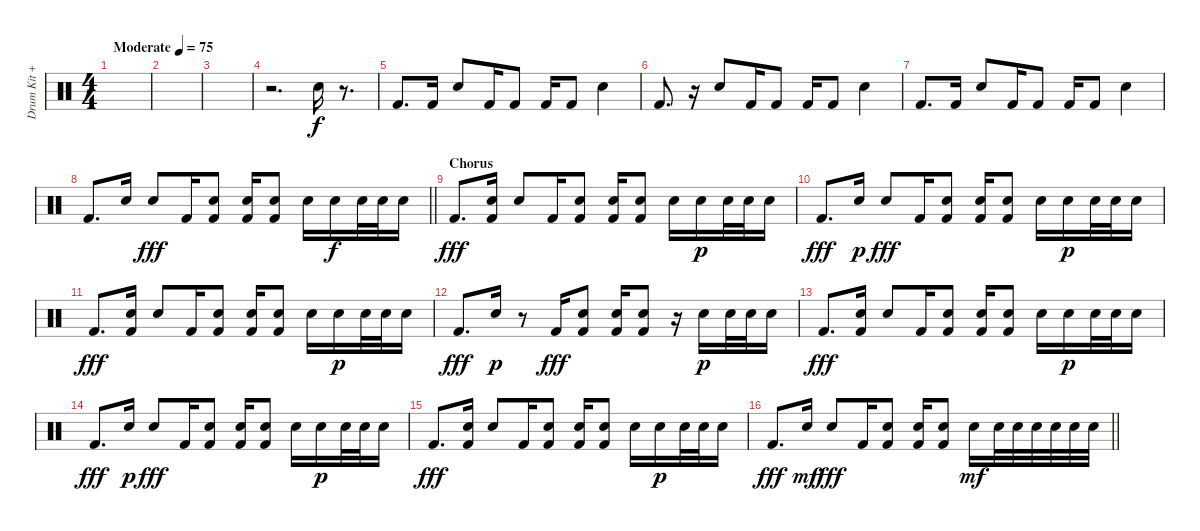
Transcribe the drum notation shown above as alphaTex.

\track ("Drum Kit + Claps" "Drum Kit +") {instrument percussion}
\staff {score}
\articulation defaults
\ts (4 4)
\tempo (75 "Moderate")
\clef neutral
\ks c
|
|
|
r.2{d} "Hand Clap (hit)".16 r.8{d} |
"Kick (hit) 2".8{d} "Kick (hit) 2".16 "Hand Clap (hit)".8 "Kick (hit) 2".16 "Kick (hit) 2".8 "Kick (hit) 2".16 "Kick (hit) 2".8 "Hand Clap (hit)".4 |
"Kick (hit) 2".8{d} r.16 "Hand Clap (hit)".8 "Kick (hit) 2".16 "Kick (hit) 2".8 "Kick (hit) 2".16 "Kick (hit) 2".8 "Hand Clap (hit)".4 |
"Kick (hit) 2".8{d} "Kick (hit) 2".16 "Hand Clap (hit)".8 "Kick (hit) 2".16 "Kick (hit) 2".8 "Kick (hit) 2".16 "Kick (hit) 2".8 "Hand Clap (hit)".4 |
\barLineRight lightlight "Kick (hit) 2".8{d} "Snare (hit) 2".16{dy f} "Hand Clap (hit)".8{dy fff} "Kick (hit) 2".16
("Snare (hit) 2" "Kick (hit) 2").8 ("Snare (hit) 2" "Kick (hit) 2").16 ("Snare (hit) 2" "Kick (hit) 2").8 "Hand Clap (hit)".16 "Snare (hit) 2".16{dy f} "Snare (hit) 2".32 "Snare (hit) 2".32 "Snare (hit) 2".16 |
\section ("" "Chorus")
"Kick (hit) 2".8{d dy fff} ("Snare (hit) 2" "Kick (hit) 2").16 "Hand Clap (hit)".8 "Kick (hit) 2".16 ("Snare (hit) 2" "Kick (hit) 2").8 ("Snare (hit) 2" "Kick (hit) 2").16 ("Snare (hit) 2" "Kick (hit) 2").8 "Hand Clap (hit)".16 "Snare (hit) 2".16{dy p} "Snare (hit) 2".32 "Snare (hit) 2".32 "Snare (hit) 2".16 |
"Kick (hit) 2".8{d dy fff} "Snare (hit) 2".16{dy p} "Hand Clap (hit)".8{dy fff} "Kick (hit) 2".16 ("Snare (hit) 2" "Kick (hit) 2").8 ("Snare (hit) 2" "Kick (hit) 2").16 ("Snare (hit) 2" "Kick (hit) 2").8 "Hand Clap (hit)".16 "Snare (hit) 2".16{dy p} "Snare (hit) 2".32 "Snare (hit) 2".32 "Snare (hit) 2".16 |
"Kick (hit) 2".8{d dy fff} ("Snare (hit) 2" "Kick (hit) 2").16 "Hand Clap (hit)".8 "Kick (hit) 2".16 ("Snare (hit) 2" "Kick (hit) 2").8 ("Snare (hit) 2" "Kick (hit) 2").16 ("Snare (hit) 2" "Kick (hit) 2").8 "Hand Clap (hit)".16 "Snare (hit) 2".16{dy p} "Snare (hit) 2".32 "Snare (hit) 2".32 "Snare (hit) 2".16 |
"Kick (hit) 2".8{d dy fff} "Snare (hit) 2".16{dy p} r.8 "Kick (hit) 2".16{dy fff} ("Snare (hit) 2" "Kick (hit) 2").8 ("Snare (hit) 2" "Kick (hit) 2").16 ("Snare (hit) 2" "Kick (hit) 2").8 r.16 "Snare (hit) 2".16{dy p} "Snare (hit) 2".32 "Snare (hit) 2".32 "Snare (hit) 2".16 |
"Kick (hit) 2".8{d dy fff} ("Snare (hit) 2" "Kick (hit) 2").16 "Hand Clap (hit)".8 "Kick (hit) 2".16 ("Snare (hit) 2" "Kick (hit) 2").8 ("Snare (hit) 2" "Kick (hit) 2").16 ("Snare (hit) 2" "Kick (hit) 2").8 "Hand Clap (hit)".16 "Snare (hit) 2".16{dy p} "Snare (hit) 2".32 "Snare (hit) 2".32 "Snare (hit) 2".16 |
"Kick (hit) 2".8{d dy fff} "Snare (hit) 2".16{dy p} "Hand Clap (hit)".8{dy fff} "Kick (hit) 2".16 ("Snare (hit) 2" "Kick (hit) 2").8 ("Snare (hit) 2" "Kick (hit) 2").16 ("Snare (hit) 2" "Kick (hit) 2").8 "Hand Clap (hit)".16 "Snare (hit) 2".16{dy p} "Snare (hit) 2".32 "Snare (hit) 2".32 "Snare (hit) 2".16 |
"Kick (hit) 2".8{d dy fff} ("Snare (hit) 2" "Kick (hit) 2").16 "Hand Clap (hit)".8 "Kick (hit) 2".16 ("Snare (hit) 2" "Kick (hit) 2").8 ("Snare (hit) 2" "Kick (hit) 2").16 ("Snare (hit) 2" "Kick (hit) 2").8 "Hand Clap (hit)".16 "Snare (hit) 2".16{dy p} "Snare (hit) 2".32 "Snare (hit) 2".32 "Snare (hit) 2".16 |
\barLineRight lightlight "Kick (hit) 2".8{d dy fff} "Snare (hit) 2".16{dy mf} "Hand Clap (hit)".8{dy fff} "Kick (hit) 2".16
("Snare (hit) 2" "Kick (hit) 2").8 ("Snare (hit) 2" "Kick (hit) 2").16 ("Snare (hit) 2" "Kick (hit) 2").8 "Snare (hit) 2".16{dy mf} "Snare (hit) 2".32 "Snare (hit) 2".32 "Snare (hit) 2".32 "Snare (hit) 2".32 "Snare (hit) 2".32 "Snare (hit) 2".32
